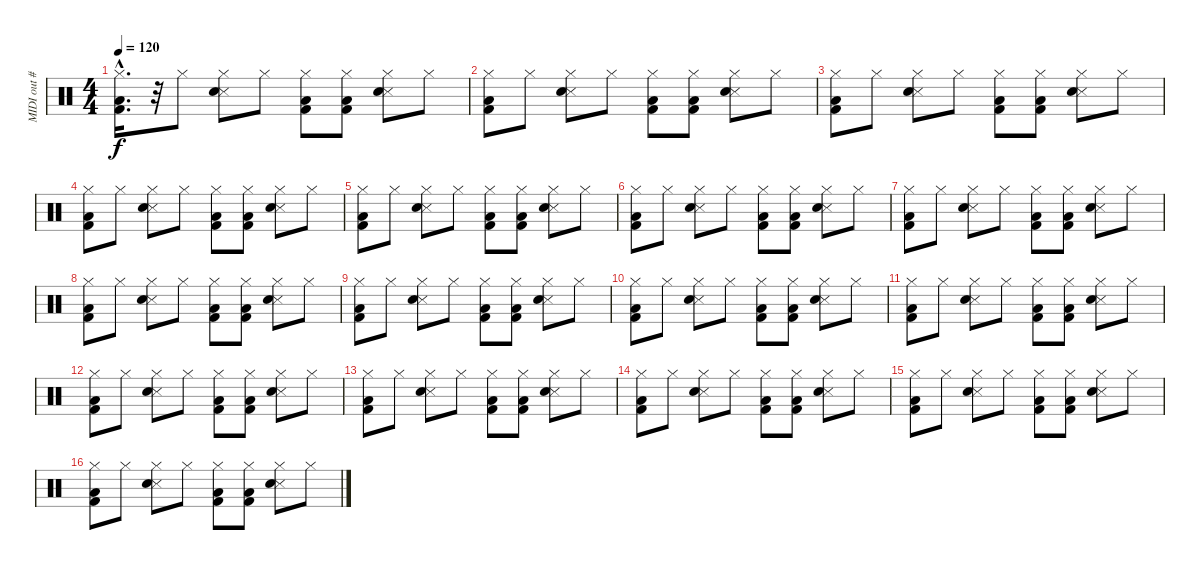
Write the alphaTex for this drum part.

\track ("MIDI out #4" "MIDI out #") {instrument percussion}
\staff {score}
\articulation defaults
\ts (4 4)
\tempo 120
\clef neutral
\ks c
("Hi-Hat (closed)"{hac} "Low Tom (hit)"{hac} "Kick (hit) 2"{hac}).16{d dy f} r.32 "Hi-Hat (closed)".8 ("Hi-Hat (closed)" "Snare (side stick) 3" "Snare (hit) 2").8 "Hi-Hat (closed)".8 ("Hi-Hat (closed)" "Low Tom (hit)" "Kick (hit) 2").8 ("Hi-Hat (closed)" "Low Tom (hit)" "Kick (hit) 2").8 ("Hi-Hat (closed)" "Snare (side stick) 3" "Snare (hit) 2").8 "Hi-Hat (closed)".8 |
("Hi-Hat (closed)" "Low Tom (hit)" "Kick (hit) 2").8 "Hi-Hat (closed)".8 ("Hi-Hat (closed)" "Snare (side stick) 3" "Snare (hit) 2").8 "Hi-Hat (closed)".8 ("Hi-Hat (closed)" "Low Tom (hit)" "Kick (hit) 2").8 ("Hi-Hat (closed)" "Low Tom (hit)" "Kick (hit) 2").8 ("Hi-Hat (closed)" "Snare (side stick) 3" "Snare (hit) 2").8 "Hi-Hat (closed)".8 |
("Hi-Hat (closed)" "Low Tom (hit)" "Kick (hit) 2").8 "Hi-Hat (closed)".8 ("Hi-Hat (closed)" "Snare (side stick) 3" "Snare (hit) 2").8 "Hi-Hat (closed)".8 ("Hi-Hat (closed)" "Low Tom (hit)" "Kick (hit) 2").8 ("Hi-Hat (closed)" "Low Tom (hit)" "Kick (hit) 2").8 ("Hi-Hat (closed)" "Snare (side stick) 3" "Snare (hit) 2").8 "Hi-Hat (closed)".8 |
("Hi-Hat (closed)" "Low Tom (hit)" "Kick (hit) 2").8 "Hi-Hat (closed)".8 ("Hi-Hat (closed)" "Snare (side stick) 3" "Snare (hit) 2").8 "Hi-Hat (closed)".8 ("Hi-Hat (closed)" "Low Tom (hit)" "Kick (hit) 2").8 ("Hi-Hat (closed)" "Low Tom (hit)" "Kick (hit) 2").8 ("Hi-Hat (closed)" "Snare (side stick) 3" "Snare (hit) 2").8 "Hi-Hat (closed)".8 |
("Hi-Hat (closed)" "Low Tom (hit)" "Kick (hit) 2").8 "Hi-Hat (closed)".8 ("Hi-Hat (closed)" "Snare (side stick) 3" "Snare (hit) 2").8 "Hi-Hat (closed)".8 ("Hi-Hat (closed)" "Low Tom (hit)" "Kick (hit) 2").8 ("Hi-Hat (closed)" "Low Tom (hit)" "Kick (hit) 2").8 ("Hi-Hat (closed)" "Snare (side stick) 3" "Snare (hit) 2").8 "Hi-Hat (closed)".8 |
("Hi-Hat (closed)" "Low Tom (hit)" "Kick (hit) 2").8 "Hi-Hat (closed)".8 ("Hi-Hat (closed)" "Snare (side stick) 3" "Snare (hit) 2").8 "Hi-Hat (closed)".8 ("Hi-Hat (closed)" "Low Tom (hit)" "Kick (hit) 2").8 ("Hi-Hat (closed)" "Low Tom (hit)" "Kick (hit) 2").8 ("Hi-Hat (closed)" "Snare (side stick) 3" "Snare (hit) 2").8 "Hi-Hat (closed)".8 |
("Hi-Hat (closed)" "Low Tom (hit)" "Kick (hit) 2").8 "Hi-Hat (closed)".8 ("Hi-Hat (closed)" "Snare (side stick) 3" "Snare (hit) 2").8 "Hi-Hat (closed)".8 ("Hi-Hat (closed)" "Low Tom (hit)" "Kick (hit) 2").8 ("Hi-Hat (closed)" "Low Tom (hit)" "Kick (hit) 2").8 ("Hi-Hat (closed)" "Snare (side stick) 3" "Snare (hit) 2").8 "Hi-Hat (closed)".8 |
("Hi-Hat (closed)" "Low Tom (hit)" "Kick (hit) 2").8 "Hi-Hat (closed)".8 ("Hi-Hat (closed)" "Snare (side stick) 3" "Snare (hit) 2").8 "Hi-Hat (closed)".8 ("Hi-Hat (closed)" "Low Tom (hit)" "Kick (hit) 2").8 ("Hi-Hat (closed)" "Low Tom (hit)" "Kick (hit) 2").8 ("Hi-Hat (closed)" "Snare (side stick) 3" "Snare (hit) 2").8 "Hi-Hat (closed)".8 |
("Hi-Hat (closed)" "Low Tom (hit)" "Kick (hit) 2").8 "Hi-Hat (closed)".8 ("Hi-Hat (closed)" "Snare (side stick) 3" "Snare (hit) 2").8 "Hi-Hat (closed)".8 ("Hi-Hat (closed)" "Low Tom (hit)" "Kick (hit) 2").8 ("Hi-Hat (closed)" "Low Tom (hit)" "Kick (hit) 2").8 ("Hi-Hat (closed)" "Snare (side stick) 3" "Snare (hit) 2").8 "Hi-Hat (closed)".8 |
("Hi-Hat (closed)" "Low Tom (hit)" "Kick (hit) 2").8 "Hi-Hat (closed)".8 ("Hi-Hat (closed)" "Snare (side stick) 3" "Snare (hit) 2").8 "Hi-Hat (closed)".8 ("Hi-Hat (closed)" "Low Tom (hit)" "Kick (hit) 2").8 ("Hi-Hat (closed)" "Low Tom (hit)" "Kick (hit) 2").8 ("Hi-Hat (closed)" "Snare (side stick) 3" "Snare (hit) 2").8 "Hi-Hat (closed)".8 |
("Hi-Hat (closed)" "Low Tom (hit)" "Kick (hit) 2").8 "Hi-Hat (closed)".8 ("Hi-Hat (closed)" "Snare (side stick) 3" "Snare (hit) 2").8 "Hi-Hat (closed)".8 ("Hi-Hat (closed)" "Low Tom (hit)" "Kick (hit) 2").8 ("Hi-Hat (closed)" "Low Tom (hit)" "Kick (hit) 2").8 ("Hi-Hat (closed)" "Snare (side stick) 3" "Snare (hit) 2").8 "Hi-Hat (closed)".8 |
("Hi-Hat (closed)" "Low Tom (hit)" "Kick (hit) 2").8 "Hi-Hat (closed)".8 ("Hi-Hat (closed)" "Snare (side stick) 3" "Snare (hit) 2").8 "Hi-Hat (closed)".8 ("Hi-Hat (closed)" "Low Tom (hit)" "Kick (hit) 2").8 ("Hi-Hat (closed)" "Low Tom (hit)" "Kick (hit) 2").8 ("Hi-Hat (closed)" "Snare (side stick) 3" "Snare (hit) 2").8 "Hi-Hat (closed)".8 |
("Hi-Hat (closed)" "Low Tom (hit)" "Kick (hit) 2").8 "Hi-Hat (closed)".8 ("Hi-Hat (closed)" "Snare (side stick) 3" "Snare (hit) 2").8 "Hi-Hat (closed)".8 ("Hi-Hat (closed)" "Low Tom (hit)" "Kick (hit) 2").8 ("Hi-Hat (closed)" "Low Tom (hit)" "Kick (hit) 2").8 ("Hi-Hat (closed)" "Snare (side stick) 3" "Snare (hit) 2").8 "Hi-Hat (closed)".8 |
("Hi-Hat (closed)" "Low Tom (hit)" "Kick (hit) 2").8 "Hi-Hat (closed)".8 ("Hi-Hat (closed)" "Snare (side stick) 3" "Snare (hit) 2").8 "Hi-Hat (closed)".8 ("Hi-Hat (closed)" "Low Tom (hit)" "Kick (hit) 2").8 ("Hi-Hat (closed)" "Low Tom (hit)" "Kick (hit) 2").8 ("Hi-Hat (closed)" "Snare (side stick) 3" "Snare (hit) 2").8 "Hi-Hat (closed)".8 |
("Hi-Hat (closed)" "Low Tom (hit)" "Kick (hit) 2").8 "Hi-Hat (closed)".8 ("Hi-Hat (closed)" "Snare (side stick) 3" "Snare (hit) 2").8 "Hi-Hat (closed)".8 ("Hi-Hat (closed)" "Low Tom (hit)" "Kick (hit) 2").8 ("Hi-Hat (closed)" "Low Tom (hit)" "Kick (hit) 2").8 ("Hi-Hat (closed)" "Snare (side stick) 3" "Snare (hit) 2").8 "Hi-Hat (closed)".8 |
("Hi-Hat (closed)" "Low Tom (hit)" "Kick (hit) 2").8 "Hi-Hat (closed)".8 ("Hi-Hat (closed)" "Snare (side stick) 3" "Snare (hit) 2").8 "Hi-Hat (closed)".8 ("Hi-Hat (closed)" "Low Tom (hit)" "Kick (hit) 2").8 ("Hi-Hat (closed)" "Low Tom (hit)" "Kick (hit) 2").8 ("Hi-Hat (closed)" "Snare (side stick) 3" "Snare (hit) 2").8 "Hi-Hat (closed)".8
